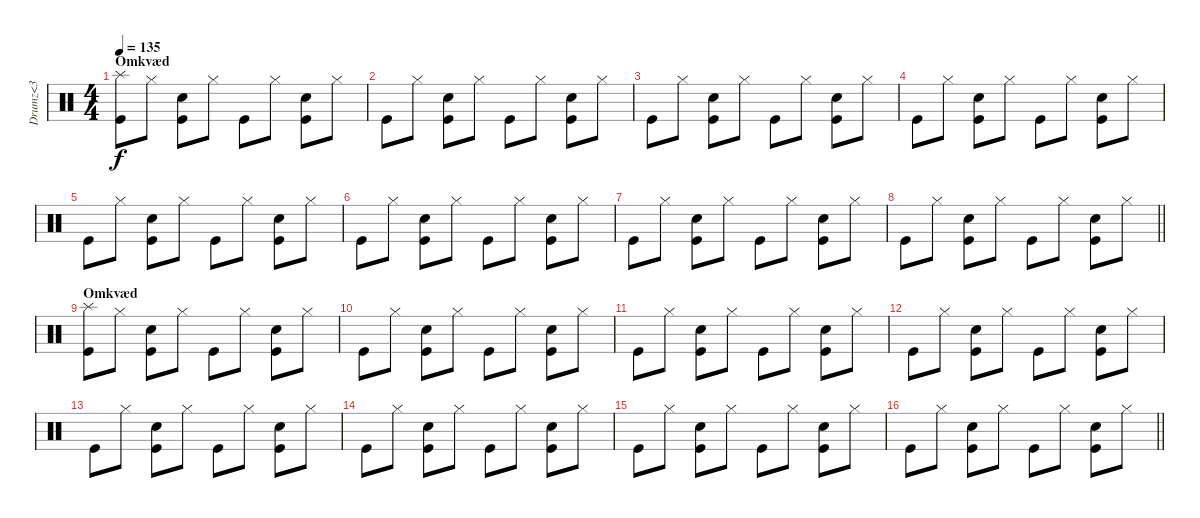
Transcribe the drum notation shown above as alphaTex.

\track ("Drumz<3" "Drumz<3") {instrument percussion}
\staff {score}
\articulation defaults
\ts (4 4)
\section ("" "Omkvæd")
\tempo 135
\clef neutral
\ks c
("Splash (hit)" "Kick (hit)").8{dy f} "Hi-Hat (closed)".8 ("Kick (hit)" "Snare (hit) 2").8 "Hi-Hat (closed)".8 "Kick (hit)".8 "Hi-Hat (closed)".8 ("Kick (hit)" "Snare (hit) 2").8 "Hi-Hat (closed)".8 |
"Kick (hit)".8 "Hi-Hat (closed)".8 ("Kick (hit)" "Snare (hit) 2").8 "Hi-Hat (closed)".8 "Kick (hit)".8 "Hi-Hat (closed)".8 ("Kick (hit)" "Snare (hit) 2").8 "Hi-Hat (closed)".8 |
"Kick (hit)".8 "Hi-Hat (closed)".8 ("Kick (hit)" "Snare (hit) 2").8 "Hi-Hat (closed)".8 "Kick (hit)".8 "Hi-Hat (closed)".8 ("Kick (hit)" "Snare (hit) 2").8 "Hi-Hat (closed)".8 |
"Kick (hit)".8 "Hi-Hat (closed)".8 ("Kick (hit)" "Snare (hit) 2").8 "Hi-Hat (closed)".8 "Kick (hit)".8 "Hi-Hat (closed)".8 ("Kick (hit)" "Snare (hit) 2").8 "Hi-Hat (closed)".8 |
"Kick (hit)".8 "Hi-Hat (closed)".8 ("Kick (hit)" "Snare (hit) 2").8 "Hi-Hat (closed)".8 "Kick (hit)".8 "Hi-Hat (closed)".8 ("Kick (hit)" "Snare (hit) 2").8 "Hi-Hat (closed)".8 |
"Kick (hit)".8 "Hi-Hat (closed)".8 ("Kick (hit)" "Snare (hit) 2").8 "Hi-Hat (closed)".8 "Kick (hit)".8 "Hi-Hat (closed)".8 ("Kick (hit)" "Snare (hit) 2").8 "Hi-Hat (closed)".8 |
"Kick (hit)".8 "Hi-Hat (closed)".8 ("Kick (hit)" "Snare (hit) 2").8 "Hi-Hat (closed)".8 "Kick (hit)".8 "Hi-Hat (closed)".8 ("Kick (hit)" "Snare (hit) 2").8 "Hi-Hat (closed)".8 |
\barLineRight lightlight "Kick (hit)".8 "Hi-Hat (closed)".8
("Kick (hit)" "Snare (hit) 2").8 "Hi-Hat (closed)".8 "Kick (hit)".8 "Hi-Hat (closed)".8 ("Kick (hit)" "Snare (hit) 2").8 "Hi-Hat (closed)".8 |
\section ("" "Omkvæd")
("Splash (hit)" "Kick (hit)").8 "Hi-Hat (closed)".8 ("Kick (hit)" "Snare (hit) 2").8 "Hi-Hat (closed)".8 "Kick (hit)".8 "Hi-Hat (closed)".8 ("Kick (hit)" "Snare (hit) 2").8 "Hi-Hat (closed)".8 |
"Kick (hit)".8 "Hi-Hat (closed)".8 ("Kick (hit)" "Snare (hit) 2").8 "Hi-Hat (closed)".8 "Kick (hit)".8 "Hi-Hat (closed)".8 ("Kick (hit)" "Snare (hit) 2").8 "Hi-Hat (closed)".8 |
"Kick (hit)".8 "Hi-Hat (closed)".8 ("Kick (hit)" "Snare (hit) 2").8 "Hi-Hat (closed)".8 "Kick (hit)".8 "Hi-Hat (closed)".8 ("Kick (hit)" "Snare (hit) 2").8 "Hi-Hat (closed)".8 |
"Kick (hit)".8 "Hi-Hat (closed)".8 ("Kick (hit)" "Snare (hit) 2").8 "Hi-Hat (closed)".8 "Kick (hit)".8 "Hi-Hat (closed)".8 ("Kick (hit)" "Snare (hit) 2").8 "Hi-Hat (closed)".8 |
"Kick (hit)".8 "Hi-Hat (closed)".8 ("Kick (hit)" "Snare (hit) 2").8 "Hi-Hat (closed)".8 "Kick (hit)".8 "Hi-Hat (closed)".8 ("Kick (hit)" "Snare (hit) 2").8 "Hi-Hat (closed)".8 |
"Kick (hit)".8 "Hi-Hat (closed)".8 ("Kick (hit)" "Snare (hit) 2").8 "Hi-Hat (closed)".8 "Kick (hit)".8 "Hi-Hat (closed)".8 ("Kick (hit)" "Snare (hit) 2").8 "Hi-Hat (closed)".8 |
"Kick (hit)".8 "Hi-Hat (closed)".8 ("Kick (hit)" "Snare (hit) 2").8 "Hi-Hat (closed)".8 "Kick (hit)".8 "Hi-Hat (closed)".8 ("Kick (hit)" "Snare (hit) 2").8 "Hi-Hat (closed)".8 |
\barLineRight lightlight "Kick (hit)".8 "Hi-Hat (closed)".8
("Kick (hit)" "Snare (hit) 2").8 "Hi-Hat (closed)".8 "Kick (hit)".8 "Hi-Hat (closed)".8 ("Kick (hit)" "Snare (hit) 2").8 "Hi-Hat (closed)".8
